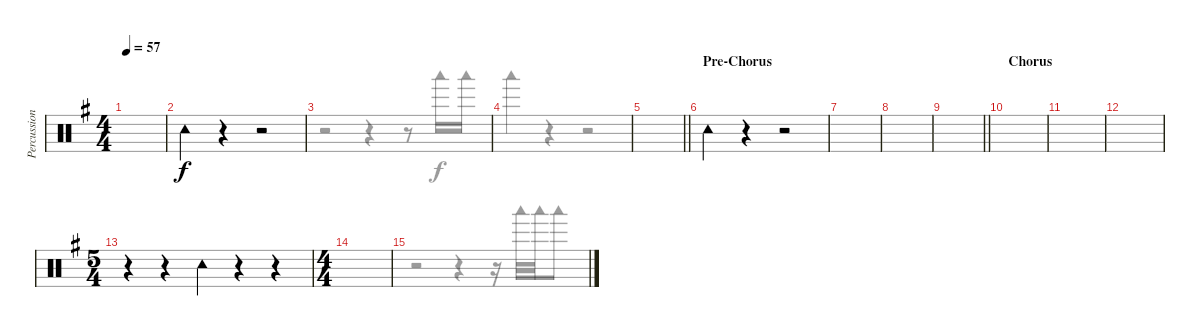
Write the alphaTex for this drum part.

\track ("Percussion 2" "Percussion") {instrument percussion}
\staff {score}
\articulation defaults
\voice
\ts (4 4)
\tempo 57
\clef neutral
\ks g
|
"Tambourine (hit)".4 r.4 r.2 |
|
|
\barLineRight lightlight
|
\section ("" "Pre-Chorus")
"Tambourine (hit)".4 r.4 r.2 |
|
|
\barLineRight lightlight
|
\section ("" "Chorus")
|
|
|
\ts (5 4)
r.4 r.4 "Tambourine (hit)".4 r.4 r.4 |
\ts (4 4)
|
|
\voice
\clef neutral
\ottava regular
\simile none
\ks g
|
|
r.2 r.4 r.8 "Woodblock low (hit)".16 "Woodblock low (hit)".16 |
"Woodblock low (hit)".4 r.4 r.2 |
\barLineRight lightlight
|
|
|
|
\barLineRight lightlight
|
|
|
|
|
|
r.2 r.4 r.16 "Woodblock low (hit)".32 "Woodblock low (hit)".32 "Woodblock low (hit)".8 |
